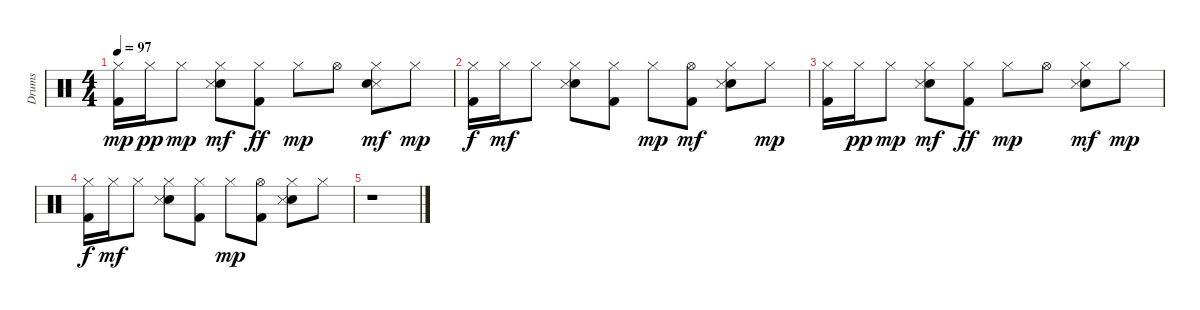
\track ("Drums" "Drums") {instrument percussion}
\staff {score}
\articulation defaults
\ts (4 4)
\tempo 97
\clef neutral
\ks c
("Kick (hit) 2" "Hi-Hat (closed)").16{dy mp} "Hi-Hat (closed)".16{dy pp} "Hi-Hat (closed)".8{dy mp} ("Hand Clap (hit)" "Hi-Hat (closed)" "Snare (side stick) 3").8{dy mf} ("Hi-Hat (closed)" "Kick (hit) 2").8{dy ff} "Hi-Hat (closed)".8{dy mp} "Hi-Hat (open)".8 ("Hi-Hat (closed)" "Snare (side stick) 3" "Hand Clap (hit)").8{dy mf} "Hi-Hat (closed)".8{dy mp} |
("Kick (hit) 2" "Hi-Hat (closed)").16{dy f} "Hi-Hat (closed)".16{dy mf} "Hi-Hat (closed)".8 ("Hand Clap (hit)" "Snare (side stick) 3" "Hi-Hat (closed)").8 ("Hi-Hat (closed)" "Kick (hit) 2").8 "Hi-Hat (closed)".8{dy mp} ("Hi-Hat (open)" "Kick (hit) 2").8{dy mf} ("Hand Clap (hit)" "Snare (side stick) 3" "Hi-Hat (closed)").8 "Hi-Hat (closed)".8{dy mp} |
("Hi-Hat (closed)" "Kick (hit) 2").16 "Hi-Hat (closed)".16{dy pp} "Hi-Hat (closed)".8{dy mp} ("Hi-Hat (closed)" "Hand Clap (hit)" "Snare (side stick) 3").8{dy mf} ("Hi-Hat (closed)" "Kick (hit) 2").8{dy ff} "Hi-Hat (closed)".8{dy mp} "Hi-Hat (open)".8 ("Hi-Hat (closed)" "Hand Clap (hit)" "Snare (side stick) 3").8{dy mf} "Hi-Hat (closed)".8{dy mp} |
("Hi-Hat (closed)" "Kick (hit) 2").16{dy f} "Hi-Hat (closed)".16{dy mf} "Hi-Hat (closed)".8 ("Hi-Hat (closed)" "Hand Clap (hit)" "Snare (side stick) 3").8 ("Hi-Hat (closed)" "Kick (hit) 2").8 "Hi-Hat (closed)".8{dy mp} ("Kick (hit) 2" "Hi-Hat (open)").8 ("Hi-Hat (closed)" "Hand Clap (hit)" "Snare (side stick) 3").8 "Hi-Hat (closed)".8 |
r.1
